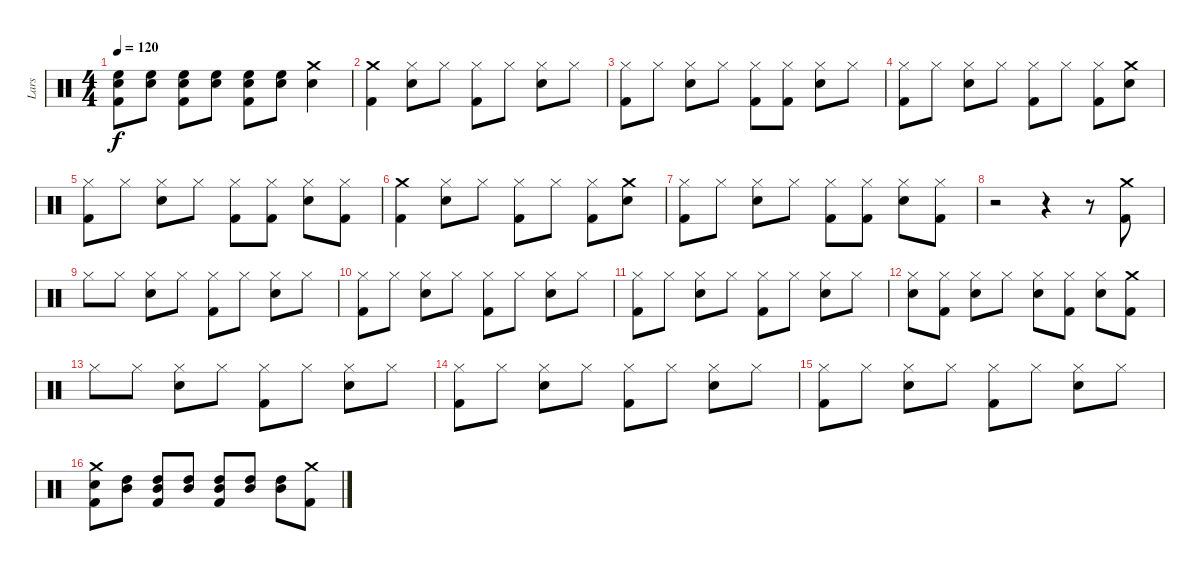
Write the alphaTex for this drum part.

\track ("Lars" "Lars") {instrument percussion}
\staff {score}
\articulation defaults
\ts (4 4)
\tempo 120
\clef neutral
\ks c
("Kick (hit) 2" "Snare (hit) 2" "High Floor Tom (hit)").8{dy f} ("Snare (hit) 2" "High Floor Tom (hit)").8 ("Kick (hit) 2" "Snare (hit) 2" "High Floor Tom (hit)").8 ("Snare (hit) 2" "High Floor Tom (hit)").8 ("Kick (hit) 2" "Snare (hit) 2" "High Floor Tom (hit)").8 ("Snare (hit) 2" "High Floor Tom (hit)").8 ("Crash medium (hit)" "Snare (hit) 2").4 |
("Kick (hit) 2" "Crash medium (hit)").4 ("Snare (hit) 2" "Hi-Hat (closed)").8 "Hi-Hat (closed)".8 ("Hi-Hat (closed)" "Kick (hit) 2").8 "Hi-Hat (closed)".8 ("Snare (hit) 2" "Hi-Hat (closed)").8 "Hi-Hat (closed)".8 |
("Hi-Hat (closed)" "Kick (hit) 2").8 "Hi-Hat (closed)".8 ("Snare (hit) 2" "Hi-Hat (closed)").8 "Hi-Hat (closed)".8 ("Kick (hit) 2" "Hi-Hat (closed)").8 ("Kick (hit) 2" "Hi-Hat (closed)").8 ("Snare (hit) 2" "Hi-Hat (closed)").8 "Hi-Hat (closed)".8 |
("Hi-Hat (closed)" "Kick (hit) 2").8 "Hi-Hat (closed)".8 ("Snare (hit) 2" "Hi-Hat (closed)").8 "Hi-Hat (closed)".8 ("Hi-Hat (closed)" "Kick (hit) 2").8 "Hi-Hat (closed)".8 ("Hi-Hat (closed)" "Kick (hit) 2").8 ("Crash medium (hit)" "Snare (hit) 2").8 |
("Hi-Hat (closed)" "Kick (hit) 2").8 "Hi-Hat (closed)".8 ("Snare (hit) 2" "Hi-Hat (closed)").8 "Hi-Hat (closed)".8 ("Kick (hit) 2" "Hi-Hat (closed)").8 ("Kick (hit) 2" "Hi-Hat (closed)").8 ("Snare (hit) 2" "Hi-Hat (closed)").8 ("Kick (hit) 2" "Hi-Hat (closed)").8 |
("Kick (hit) 2" "Crash medium (hit)").4 ("Hi-Hat (closed)" "Snare (hit) 2").8 "Hi-Hat (closed)".8 ("Kick (hit) 2" "Hi-Hat (closed)").8 "Hi-Hat (closed)".8 ("Kick (hit) 2" "Hi-Hat (closed)").8 ("Crash medium (hit)" "Snare (hit) 2").8 |
("Kick (hit) 2" "Hi-Hat (closed)").8 "Hi-Hat (closed)".8 ("Snare (hit) 2" "Hi-Hat (closed)").8 "Hi-Hat (closed)".8 ("Kick (hit) 2" "Hi-Hat (closed)").8 ("Kick (hit) 2" "Hi-Hat (closed)").8 ("Snare (hit) 2" "Hi-Hat (closed)").8 ("Kick (hit) 2" "Hi-Hat (closed)").8 |
r.2 r.4 r.8 ("Kick (hit) 2" "Crash medium (hit)").8 |
"Hi-Hat (closed)".8 "Hi-Hat (closed)".8 ("Snare (hit) 2" "Hi-Hat (closed)").8 "Hi-Hat (closed)".8 ("Kick (hit) 2" "Hi-Hat (closed)").8 "Hi-Hat (closed)".8 ("Snare (hit) 2" "Hi-Hat (closed)").8 "Hi-Hat (closed)".8 |
("Kick (hit) 2" "Hi-Hat (closed)").8 "Hi-Hat (closed)".8 ("Snare (hit) 2" "Hi-Hat (closed)").8 "Hi-Hat (closed)".8 ("Kick (hit) 2" "Hi-Hat (closed)").8 "Hi-Hat (closed)".8 ("Snare (hit) 2" "Hi-Hat (closed)").8 "Hi-Hat (closed)".8 |
("Kick (hit) 2" "Hi-Hat (closed)").8 "Hi-Hat (closed)".8 ("Snare (hit) 2" "Hi-Hat (closed)").8 "Hi-Hat (closed)".8 ("Kick (hit) 2" "Hi-Hat (closed)").8 "Hi-Hat (closed)".8 ("Snare (hit) 2" "Hi-Hat (closed)").8 "Hi-Hat (closed)".8 |
("Snare (hit) 2" "Hi-Hat (closed)").8 ("Kick (hit) 2" "Hi-Hat (closed)").8 ("Snare (hit) 2" "Hi-Hat (closed)").8 "Hi-Hat (closed)".8 ("Snare (hit) 2" "Hi-Hat (closed)").8 ("Kick (hit) 2" "Hi-Hat (closed)").8 ("Snare (hit) 2" "Hi-Hat (closed)").8 ("Kick (hit) 2" "Crash medium (hit)").8 |
"Hi-Hat (closed)".8 "Hi-Hat (closed)".8 ("Snare (hit) 2" "Hi-Hat (closed)").8 "Hi-Hat (closed)".8 ("Kick (hit) 2" "Hi-Hat (closed)").8 "Hi-Hat (closed)".8 ("Snare (hit) 2" "Hi-Hat (closed)").8 "Hi-Hat (closed)".8 |
("Kick (hit) 2" "Hi-Hat (closed)").8 "Hi-Hat (closed)".8 ("Snare (hit) 2" "Hi-Hat (closed)").8 "Hi-Hat (closed)".8 ("Kick (hit) 2" "Hi-Hat (closed)").8 "Hi-Hat (closed)".8 ("Snare (hit) 2" "Hi-Hat (closed)").8 "Hi-Hat (closed)".8 |
("Kick (hit) 2" "Hi-Hat (closed)").8 "Hi-Hat (closed)".8 ("Snare (hit) 2" "Hi-Hat (closed)").8 "Hi-Hat (closed)".8 ("Kick (hit) 2" "Hi-Hat (closed)").8 "Hi-Hat (closed)".8 ("Snare (hit) 2" "Hi-Hat (closed)").8 "Hi-Hat (closed)".8 |
("Kick (hit) 2" "Snare (hit) 2" "Crash medium (hit)").8 ("High Tom (hit)" "Mid Tom (hit)").8 ("Kick (hit) 2" "High Tom (hit)" "Mid Tom (hit)").8 ("High Tom (hit)" "Mid Tom (hit)").8 ("Kick (hit) 2" "High Tom (hit)" "Mid Tom (hit)").8 ("High Tom (hit)" "Mid Tom (hit)").8 ("High Tom (hit)" "Mid Tom (hit)").8 ("Crash medium (hit)" "Kick (hit) 2").8
